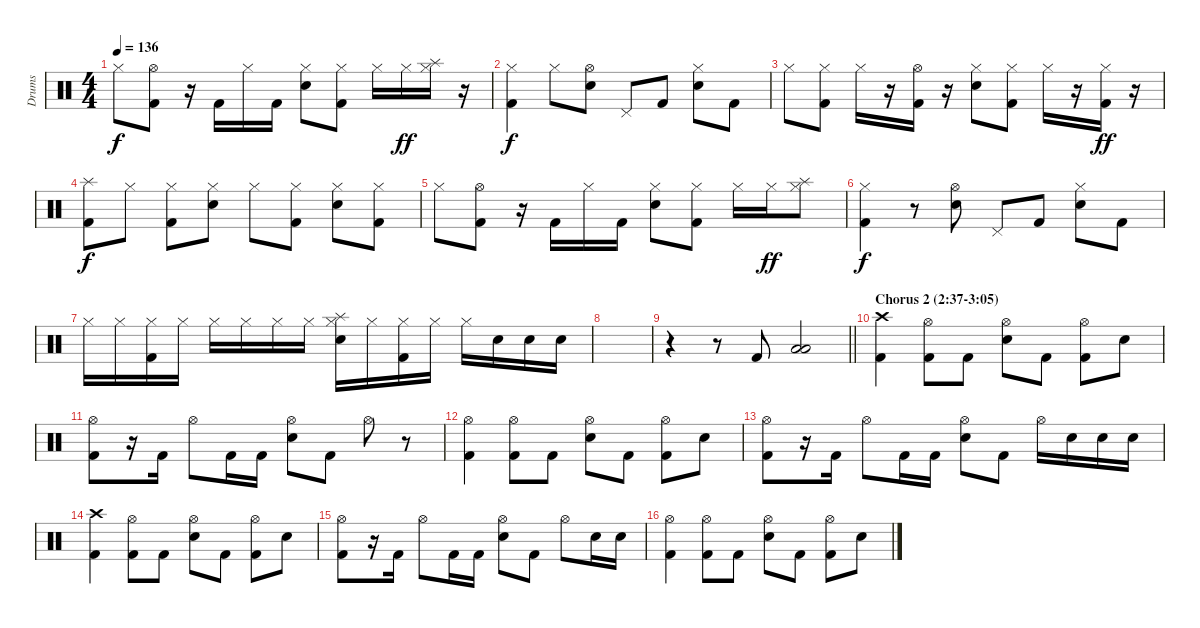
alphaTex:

\track ("Drums" "Drums") {instrument percussion}
\staff {score}
\articulation defaults
\ts (4 4)
\tempo 136
\clef neutral
\ks c "Hi-Hat (closed)".8{dy f}
("Kick (hit) 2" "Hi-Hat (open)").8 r.16 "Kick (hit) 2".16 "Hi-Hat (closed)".16 "Kick (hit) 2".16 ("Hi-Hat (closed)" "Snare (hit) 2").8 ("Hi-Hat (closed)" "Kick (hit) 2").8 "Hi-Hat (closed)".16 "Hi-Hat (closed)".16{dy ff} ("Hi-Hat (closed)" "Splash (hit)").16 r.16 |
("Kick (hit) 2" "Hi-Hat (closed)").4{dy f} "Hi-Hat (closed)".8 ("Snare (hit) 2" "Hi-Hat (open)").8 "Pedal Hi-Hat (hit)".8 "Kick (hit) 2".8 ("Hi-Hat (closed)" "Snare (hit) 2").8 "Kick (hit) 2".8 |
"Hi-Hat (closed)".8 ("Kick (hit) 2" "Hi-Hat (closed)").8 "Hi-Hat (closed)".16 r.16 ("Hi-Hat (open)" "Kick (hit) 2").16 r.16 ("Hi-Hat (closed)" "Snare (hit) 2").8 ("Hi-Hat (closed)" "Kick (hit) 2").8 "Hi-Hat (closed)".16 r.16 ("Hi-Hat (closed)" "Kick (hit) 2").16{dy ff} r.16 |
("Kick (hit) 2" "Splash (hit)").8{dy f} "Hi-Hat (closed)".8 ("Kick (hit) 2" "Hi-Hat (closed)").8 ("Hi-Hat (closed)" "Snare (hit) 2").8 "Hi-Hat (closed)".8 ("Hi-Hat (closed)" "Kick (hit) 2").8 ("Hi-Hat (closed)" "Snare (hit) 2").8 ("Hi-Hat (closed)" "Kick (hit) 2").8 |
"Hi-Hat (closed)".8 ("Kick (hit) 2" "Hi-Hat (open)").8 r.16 "Kick (hit) 2".16 "Hi-Hat (closed)".16 "Kick (hit) 2".16 ("Hi-Hat (closed)" "Snare (hit) 2").8 ("Hi-Hat (closed)" "Kick (hit) 2").8 "Hi-Hat (closed)".16 "Hi-Hat (closed)".16{dy ff} ("Hi-Hat (closed)" "Splash (hit)").8 |
("Kick (hit) 2" "Hi-Hat (closed)").4{dy f} r.8 ("Snare (hit) 2" "Hi-Hat (open)").8 "Pedal Hi-Hat (hit)".8 "Kick (hit) 2".8 ("Hi-Hat (closed)" "Snare (hit) 2").8 "Kick (hit) 2".8 |
"Hi-Hat (closed)".16 "Hi-Hat (closed)".16 ("Hi-Hat (closed)" "Kick (hit) 2").16 "Hi-Hat (closed)".16 "Hi-Hat (closed)".16 "Hi-Hat (closed)".16 "Hi-Hat (closed)".16 "Hi-Hat (closed)".16 ("Hi-Hat (closed)" "Snare (hit) 2" "Splash (hit)").16 "Hi-Hat (closed)".16 ("Hi-Hat (closed)" "Kick (hit) 2").16 "Hi-Hat (closed)".16 "Hi-Hat (closed)".16 "Snare (hit) 2".16 "Snare (hit) 2".16 "Snare (hit) 2".16 |
|
\barLineRight lightlight
r.4 r.8 "Kick (hit) 2".8 ("Low Floor Tom (hit)" "Low Tom (hit)").2 |
\section ("" "Chorus 2 (2:37-3:05)")
("Crash high (hit)" "Kick (hit) 2").4 ("Kick (hit) 2" "Hi-Hat (open)").8 "Kick (hit) 2".8 ("Snare (hit) 2" "Hi-Hat (open)").8 "Kick (hit) 2".8 ("Kick (hit) 2" "Hi-Hat (open)").8 "Snare (hit) 2".8 |
("Kick (hit) 2" "Hi-Hat (open)").8 r.16 "Kick (hit) 2".16 "Hi-Hat (open)".8 "Kick (hit) 2".16 "Kick (hit) 2".16 ("Hi-Hat (open)" "Snare (hit) 2").8 "Kick (hit) 2".8 "Hi-Hat (open)".8 r.8 |
("Hi-Hat (open)" "Kick (hit) 2").4 ("Kick (hit) 2" "Hi-Hat (open)").8 "Kick (hit) 2".8 ("Snare (hit) 2" "Hi-Hat (open)").8 "Kick (hit) 2".8 ("Kick (hit) 2" "Hi-Hat (open)").8 "Snare (hit) 2".8 |
("Kick (hit) 2" "Hi-Hat (open)").8 r.16 "Kick (hit) 2".16 "Hi-Hat (open)".8 "Kick (hit) 2".16 "Kick (hit) 2".16 ("Hi-Hat (open)" "Snare (hit) 2").8 "Kick (hit) 2".8 "Hi-Hat (open)".16 "Snare (hit) 2".16 "Snare (hit) 2".16 "Snare (hit) 2".16 |
("Crash high (hit)" "Kick (hit) 2").4 ("Kick (hit) 2" "Hi-Hat (open)").8 "Kick (hit) 2".8 ("Snare (hit) 2" "Hi-Hat (open)").8 "Kick (hit) 2".8 ("Kick (hit) 2" "Hi-Hat (open)").8 "Snare (hit) 2".8 |
("Kick (hit) 2" "Hi-Hat (open)").8 r.16 "Kick (hit) 2".16 "Hi-Hat (open)".8 "Kick (hit) 2".16 "Kick (hit) 2".16 ("Hi-Hat (open)" "Snare (hit) 2").8 "Kick (hit) 2".8 "Hi-Hat (open)".8 "Snare (hit) 2".16 "Snare (hit) 2".16 |
("Kick (hit) 2" "Hi-Hat (open)").4 ("Hi-Hat (open)" "Kick (hit) 2").8 "Kick (hit) 2".8 ("Hi-Hat (open)" "Snare (hit) 2").8 "Kick (hit) 2".8 ("Hi-Hat (open)" "Kick (hit) 2").8 "Snare (hit) 2".8
